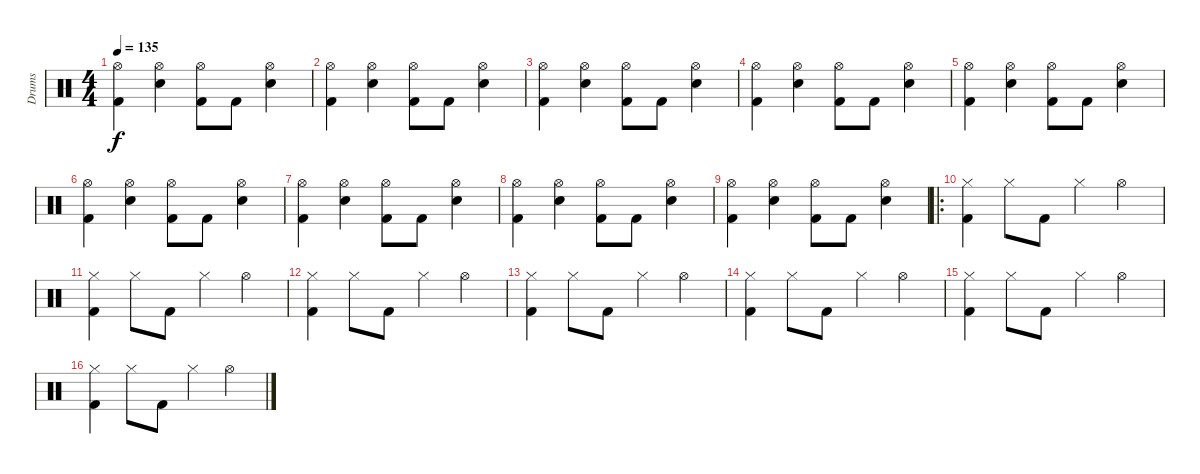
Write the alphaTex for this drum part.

\track ("Drums" "Drums") {instrument percussion}
\staff {score}
\articulation defaults
\ts (4 4)
\tempo 135
\clef neutral
\ks c
("Hi-Hat (open)" "Kick (hit) 2").4{dy f} ("Hi-Hat (open)" "Electric Snare (hit)").4 ("Hi-Hat (open)" "Kick (hit) 2").8 "Kick (hit) 2".8 ("Hi-Hat (open)" "Electric Snare (hit)").4 |
("Hi-Hat (open)" "Kick (hit) 2").4 ("Hi-Hat (open)" "Electric Snare (hit)").4 ("Hi-Hat (open)" "Kick (hit) 2").8 "Kick (hit) 2".8 ("Hi-Hat (open)" "Electric Snare (hit)").4 |
("Hi-Hat (open)" "Kick (hit) 2").4 ("Hi-Hat (open)" "Electric Snare (hit)").4 ("Hi-Hat (open)" "Kick (hit) 2").8 "Kick (hit) 2".8 ("Hi-Hat (open)" "Electric Snare (hit)").4 |
("Hi-Hat (open)" "Kick (hit) 2").4 ("Hi-Hat (open)" "Electric Snare (hit)").4 ("Hi-Hat (open)" "Kick (hit) 2").8 "Kick (hit) 2".8 ("Hi-Hat (open)" "Electric Snare (hit)").4 |
("Hi-Hat (open)" "Kick (hit) 2").4 ("Hi-Hat (open)" "Electric Snare (hit)").4 ("Hi-Hat (open)" "Kick (hit) 2").8 "Kick (hit) 2".8 ("Hi-Hat (open)" "Electric Snare (hit)").4 |
("Hi-Hat (open)" "Kick (hit) 2").4 ("Hi-Hat (open)" "Electric Snare (hit)").4 ("Hi-Hat (open)" "Kick (hit) 2").8 "Kick (hit) 2".8 ("Hi-Hat (open)" "Electric Snare (hit)").4 |
("Hi-Hat (open)" "Kick (hit) 2").4 ("Hi-Hat (open)" "Electric Snare (hit)").4 ("Hi-Hat (open)" "Kick (hit) 2").8 "Kick (hit) 2".8 ("Hi-Hat (open)" "Electric Snare (hit)").4 |
("Hi-Hat (open)" "Kick (hit) 2").4 ("Hi-Hat (open)" "Electric Snare (hit)").4 ("Hi-Hat (open)" "Kick (hit) 2").8 "Kick (hit) 2".8 ("Hi-Hat (open)" "Electric Snare (hit)").4 |
("Hi-Hat (open)" "Kick (hit) 2").4 ("Hi-Hat (open)" "Electric Snare (hit)").4 ("Hi-Hat (open)" "Kick (hit) 2").8 "Kick (hit) 2".8 ("Hi-Hat (open)" "Electric Snare (hit)").4 |
\ro
("Hi-Hat (closed)" "Kick (hit) 2").4 "Hi-Hat (closed)".8 "Kick (hit) 2".8 "Hi-Hat (closed)".4 "Hi-Hat (open)".4 |
("Hi-Hat (closed)" "Kick (hit) 2").4 "Hi-Hat (closed)".8 "Kick (hit) 2".8 "Hi-Hat (closed)".4 "Hi-Hat (open)".4 |
("Hi-Hat (closed)" "Kick (hit) 2").4 "Hi-Hat (closed)".8 "Kick (hit) 2".8 "Hi-Hat (closed)".4 "Hi-Hat (open)".4 |
("Hi-Hat (closed)" "Kick (hit) 2").4 "Hi-Hat (closed)".8 "Kick (hit) 2".8 "Hi-Hat (closed)".4 "Hi-Hat (open)".4 |
("Hi-Hat (closed)" "Kick (hit) 2").4 "Hi-Hat (closed)".8 "Kick (hit) 2".8 "Hi-Hat (closed)".4 "Hi-Hat (open)".4 |
("Hi-Hat (closed)" "Kick (hit) 2").4 "Hi-Hat (closed)".8 "Kick (hit) 2".8 "Hi-Hat (closed)".4 "Hi-Hat (open)".4 |
("Hi-Hat (closed)" "Kick (hit) 2").4 "Hi-Hat (closed)".8 "Kick (hit) 2".8 "Hi-Hat (closed)".4 "Hi-Hat (open)".4
